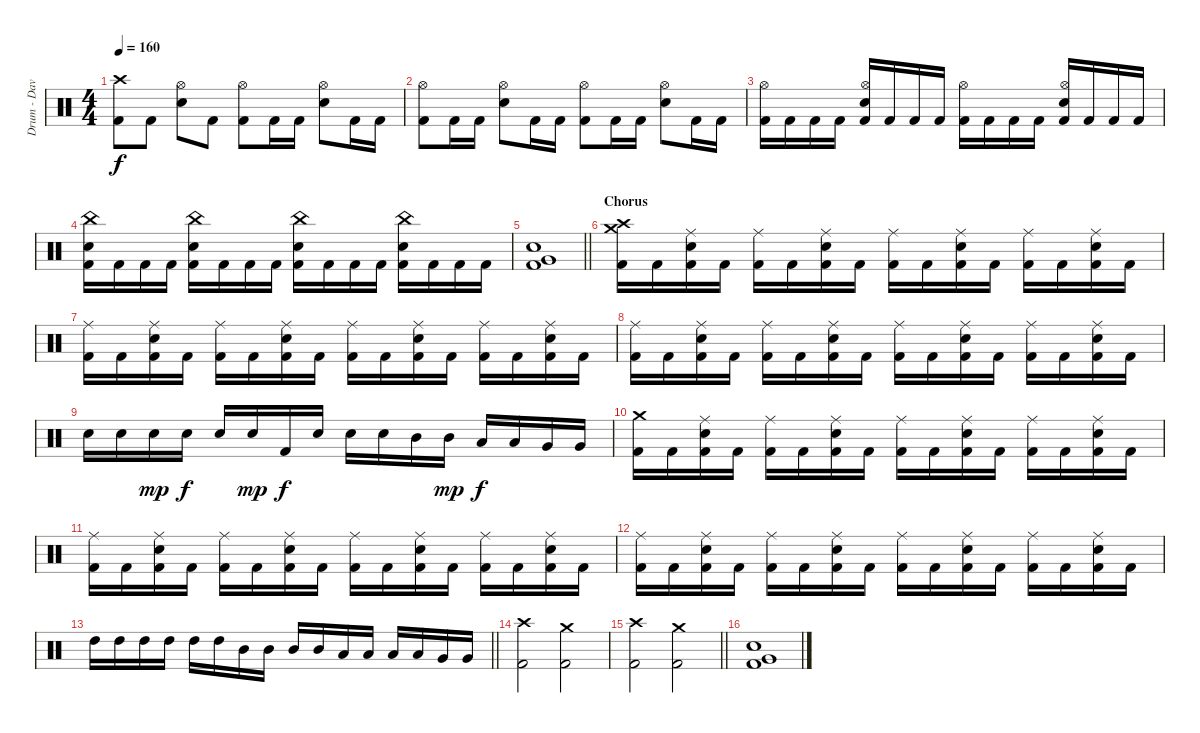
\track ("Drum - Dave Mackintosh" "Drum - Dav") {instrument percussion}
\staff {score}
\articulation defaults
\ts (4 4)
\tempo 160
\clef neutral
\ks c
("Crash high (hit)" "Kick (hit) 2").8{dy f} "Kick (hit) 2".8 ("Hi-Hat (open)" "Electric Snare (hit)").8 "Kick (hit) 2".8 ("Hi-Hat (open)" "Kick (hit) 2").8 "Kick (hit) 2".16 "Kick (hit) 2".16 ("Hi-Hat (open)" "Electric Snare (hit)").8 "Kick (hit) 2".16 "Kick (hit) 2".16 |
("Hi-Hat (open)" "Kick (hit) 2").8 "Kick (hit) 2".16 "Kick (hit) 2".16 ("Hi-Hat (open)" "Electric Snare (hit)").8 "Kick (hit) 2".16 "Kick (hit) 2".16 ("Hi-Hat (open)" "Kick (hit) 2").8 "Kick (hit) 2".16 "Kick (hit) 2".16 ("Hi-Hat (open)" "Electric Snare (hit)").8 "Kick (hit) 2".16 "Kick (hit) 2".16 |
("Hi-Hat (open)" "Kick (hit) 2").16 "Kick (hit) 2".16 "Kick (hit) 2".16 "Kick (hit) 2".16 ("Hi-Hat (open)" "Electric Snare (hit)" "Kick (hit) 2").16 "Kick (hit) 2".16 "Kick (hit) 2".16 "Kick (hit) 2".16 ("Hi-Hat (open)" "Kick (hit) 2").16 "Kick (hit) 2".16 "Kick (hit) 2".16 "Kick (hit) 2".16 ("Hi-Hat (open)" "Electric Snare (hit)" "Kick (hit) 2").16 "Kick (hit) 2".16 "Kick (hit) 2".16 "Kick (hit) 2".16 |
("China (hit)" "Electric Snare (hit)" "Kick (hit) 2").16 "Kick (hit) 2".16 "Kick (hit) 2".16 "Kick (hit) 2".16 ("China (hit)" "Electric Snare (hit)" "Kick (hit) 2").16 "Kick (hit) 2".16 "Kick (hit) 2".16 "Kick (hit) 2".16 ("China (hit)" "Electric Snare (hit)" "Kick (hit) 2").16 "Kick (hit) 2".16 "Kick (hit) 2".16 "Kick (hit) 2".16 ("China (hit)" "Electric Snare (hit)" "Kick (hit) 2").16 "Kick (hit) 2".16 "Kick (hit) 2".16 "Kick (hit) 2".16 |
\barLineRight lightlight
("Very Low Tom (hit)" "Electric Snare (hit)" "Kick (hit) 2").1 |
\section ("" "Chorus")
("Crash high (hit)" "Crash medium (hit)" "Kick (hit) 2").16 "Kick (hit) 2".16 ("Ride (middle)" "Electric Snare (hit)" "Kick (hit) 2").16 "Kick (hit) 2".16 ("Ride (middle)" "Kick (hit) 2").16 "Kick (hit) 2".16 ("Ride (middle)" "Electric Snare (hit)" "Kick (hit) 2").16 "Kick (hit) 2".16 ("Ride (middle)" "Kick (hit) 2").16 "Kick (hit) 2".16 ("Ride (middle)" "Electric Snare (hit)" "Kick (hit) 2").16 "Kick (hit) 2".16 ("Ride (middle)" "Kick (hit) 2").16 "Kick (hit) 2".16 ("Ride (middle)" "Electric Snare (hit)" "Kick (hit) 2").16 "Kick (hit) 2".16 |
("Ride (middle)" "Kick (hit) 2").16 "Kick (hit) 2".16 ("Ride (middle)" "Electric Snare (hit)" "Kick (hit) 2").16 "Kick (hit) 2".16 ("Ride (middle)" "Kick (hit) 2").16 "Kick (hit) 2".16 ("Ride (middle)" "Electric Snare (hit)" "Kick (hit) 2").16 "Kick (hit) 2".16 ("Ride (middle)" "Kick (hit) 2").16 "Kick (hit) 2".16 ("Ride (middle)" "Electric Snare (hit)" "Kick (hit) 2").16 "Kick (hit) 2".16 ("Ride (middle)" "Kick (hit) 2").16 "Kick (hit) 2".16 ("Ride (middle)" "Electric Snare (hit)" "Kick (hit) 2").16 "Kick (hit) 2".16 |
("Ride (middle)" "Kick (hit) 2").16 "Kick (hit) 2".16 ("Ride (middle)" "Electric Snare (hit)" "Kick (hit) 2").16 "Kick (hit) 2".16 ("Ride (middle)" "Kick (hit) 2").16 "Kick (hit) 2".16 ("Ride (middle)" "Electric Snare (hit)" "Kick (hit) 2").16 "Kick (hit) 2".16 ("Ride (middle)" "Kick (hit) 2").16 "Kick (hit) 2".16 ("Ride (middle)" "Electric Snare (hit)" "Kick (hit) 2").16 "Kick (hit) 2".16 ("Ride (middle)" "Kick (hit) 2").16 "Kick (hit) 2".16 ("Ride (middle)" "Electric Snare (hit)" "Kick (hit) 2").16 "Kick (hit) 2".16 |
"Electric Snare (hit)".16 "Electric Snare (hit)".16 "Electric Snare (hit)".16{dy mp} "Electric Snare (hit)".16{dy f} "Electric Snare (hit)".16 "Electric Snare (hit)".16{dy mp} "Kick (hit) 2".16{dy f} "Electric Snare (hit)".16 "Electric Snare (hit)".16 "Electric Snare (hit)".16 "Mid Tom (hit)".16 "Mid Tom (hit)".16{dy mp} "Low Tom (hit)".16{dy f} "Low Tom (hit)".16 "Very Low Tom (hit)".16 "Very Low Tom (hit)".16 |
("Crash medium (hit)" "Kick (hit) 2").16 "Kick (hit) 2".16 ("Ride (middle)" "Electric Snare (hit)" "Kick (hit) 2").16 "Kick (hit) 2".16 ("Ride (middle)" "Kick (hit) 2").16 "Kick (hit) 2".16 ("Ride (middle)" "Electric Snare (hit)" "Kick (hit) 2").16 "Kick (hit) 2".16 ("Ride (middle)" "Kick (hit) 2").16 "Kick (hit) 2".16 ("Ride (middle)" "Electric Snare (hit)" "Kick (hit) 2").16 "Kick (hit) 2".16 ("Ride (middle)" "Kick (hit) 2").16 "Kick (hit) 2".16 ("Ride (middle)" "Electric Snare (hit)" "Kick (hit) 2").16 "Kick (hit) 2".16 |
("Ride (middle)" "Kick (hit) 2").16 "Kick (hit) 2".16 ("Ride (middle)" "Electric Snare (hit)" "Kick (hit) 2").16 "Kick (hit) 2".16 ("Ride (middle)" "Kick (hit) 2").16 "Kick (hit) 2".16 ("Ride (middle)" "Electric Snare (hit)" "Kick (hit) 2").16 "Kick (hit) 2".16 ("Ride (middle)" "Kick (hit) 2").16 "Kick (hit) 2".16 ("Ride (middle)" "Electric Snare (hit)" "Kick (hit) 2").16 "Kick (hit) 2".16 ("Ride (middle)" "Kick (hit) 2").16 "Kick (hit) 2".16 ("Ride (middle)" "Electric Snare (hit)" "Kick (hit) 2").16 "Kick (hit) 2".16 |
("Ride (middle)" "Kick (hit) 2").16 "Kick (hit) 2".16 ("Ride (middle)" "Electric Snare (hit)" "Kick (hit) 2").16 "Kick (hit) 2".16 ("Ride (middle)" "Kick (hit) 2").16 "Kick (hit) 2".16 ("Ride (middle)" "Electric Snare (hit)" "Kick (hit) 2").16 "Kick (hit) 2".16 ("Ride (middle)" "Kick (hit) 2").16 "Kick (hit) 2".16 ("Ride (middle)" "Electric Snare (hit)" "Kick (hit) 2").16 "Kick (hit) 2".16 ("Ride (middle)" "Kick (hit) 2").16 "Kick (hit) 2".16 ("Ride (middle)" "Electric Snare (hit)" "Kick (hit) 2").16 "Kick (hit) 2".16 |
\barLineRight lightlight "High Tom (hit)".16 "High Tom (hit)".16 "High Tom (hit)".16 "High Tom (hit)".16 "High Tom (hit)".16 "High Tom (hit)".16 "Mid Tom (hit)".16 "Mid Tom (hit)".16 "Mid Tom (hit)".16 "Mid Tom (hit)".16 "Low Tom (hit)".16 "Low Tom (hit)".16 "Low Tom (hit)".16 "Low Tom (hit)".16 "Very Low Tom (hit)".16 "Very Low Tom (hit)".16
|
("Crash high (hit)" "Kick (hit) 2").2 ("Crash medium (hit)" "Kick (hit) 2").2 |
\barLineRight lightlight
("Crash high (hit)" "Kick (hit) 2").2 ("Crash medium (hit)" "Kick (hit) 2").2 |
\section ("" "")
("Very Low Tom (hit)" "Electric Snare (hit)" "Kick (hit) 2").1
